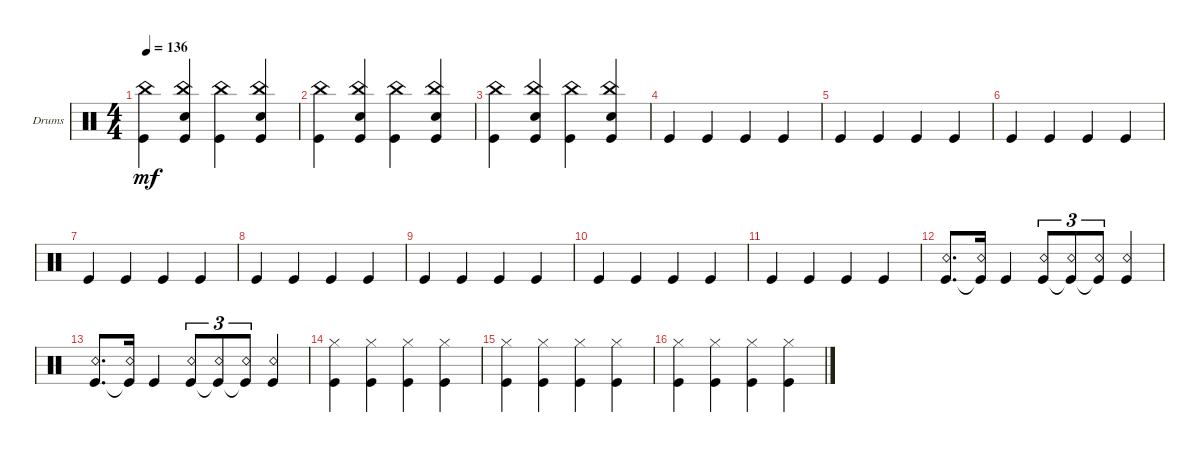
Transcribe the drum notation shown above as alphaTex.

\defaultSystemsLayout 4
\bracketExtendMode groupsimilarinstruments
\firstSystemTrackNameOrientation horizontal
\otherSystemsTrackNameOrientation horizontal
\track ("Drumkit" "Drums") {instrument percussion}
\staff {score}
\articulation defaults
\ts (4 4)
\tempo 136
\clef neutral
\ks c
("Kick (hit)" "China (hit)").4{dy mf} ("Kick (hit)" "Snare (hit) 2" "China (hit)").4 ("Kick (hit)" "China (hit)").4 ("Kick (hit)" "Snare (hit) 2" "China (hit)").4 |
("Kick (hit)" "China (hit)").4 ("Kick (hit)" "Snare (hit) 2" "China (hit)").4 ("Kick (hit)" "China (hit)").4 ("Kick (hit)" "Snare (hit) 2" "China (hit)").4 |
("Kick (hit)" "China (hit)").4 ("Kick (hit)" "Snare (hit) 2" "China (hit)").4 ("Kick (hit)" "China (hit)").4 ("Kick (hit)" "Snare (hit) 2" "China (hit)").4 |
"Kick (hit)".4 "Kick (hit)".4 "Kick (hit)".4 "Kick (hit)".4 |
"Kick (hit)".4 "Kick (hit)".4 "Kick (hit)".4 "Kick (hit)".4 |
"Kick (hit)".4 "Kick (hit)".4 "Kick (hit)".4 "Kick (hit)".4 |
"Kick (hit)".4 "Kick (hit)".4 "Kick (hit)".4 "Kick (hit)".4 |
"Kick (hit)".4 "Kick (hit)".4 "Kick (hit)".4 "Kick (hit)".4 |
"Kick (hit)".4 "Kick (hit)".4 "Kick (hit)".4 "Kick (hit)".4 |
"Kick (hit)".4 "Kick (hit)".4 "Kick (hit)".4 "Kick (hit)".4 |
"Kick (hit)".4 "Kick (hit)".4 "Kick (hit)".4 "Kick (hit)".4 |
("Kick (hit)" "Snare (rim shot)").8{d} ("Kick (hit)"{t} "Snare (rim shot)").16 "Kick (hit)".4 ("Kick (hit)" "Snare (rim shot)").8{tu (3 2)} ("Kick (hit)"{t} "Snare (rim shot)").8{tu (3 2)} ("Kick (hit)"{t} "Snare (rim shot)").8{tu (3 2)} ("Kick (hit)" "Snare (rim shot)").4 |
("Kick (hit)" "Snare (rim shot)").8{d} ("Kick (hit)"{t} "Snare (rim shot)").16 "Kick (hit)".4 ("Kick (hit)" "Snare (rim shot)").8{tu (3 2)} ("Kick (hit)"{t} "Snare (rim shot)").8{tu (3 2)} ("Kick (hit)"{t} "Snare (rim shot)").8{tu (3 2)} ("Kick (hit)" "Snare (rim shot)").4 |
("Hi-Hat (closed)" "Kick (hit)").4 ("Hi-Hat (closed)" "Kick (hit)").4 ("Hi-Hat (closed)" "Kick (hit)").4 ("Hi-Hat (closed)" "Kick (hit)").4 |
("Hi-Hat (closed)" "Kick (hit)").4 ("Hi-Hat (closed)" "Kick (hit)").4 ("Hi-Hat (closed)" "Kick (hit)").4 ("Hi-Hat (closed)" "Kick (hit)").4 |
("Hi-Hat (closed)" "Kick (hit)").4 ("Hi-Hat (closed)" "Kick (hit)").4 ("Hi-Hat (closed)" "Kick (hit)").4 ("Hi-Hat (closed)" "Kick (hit)").4
